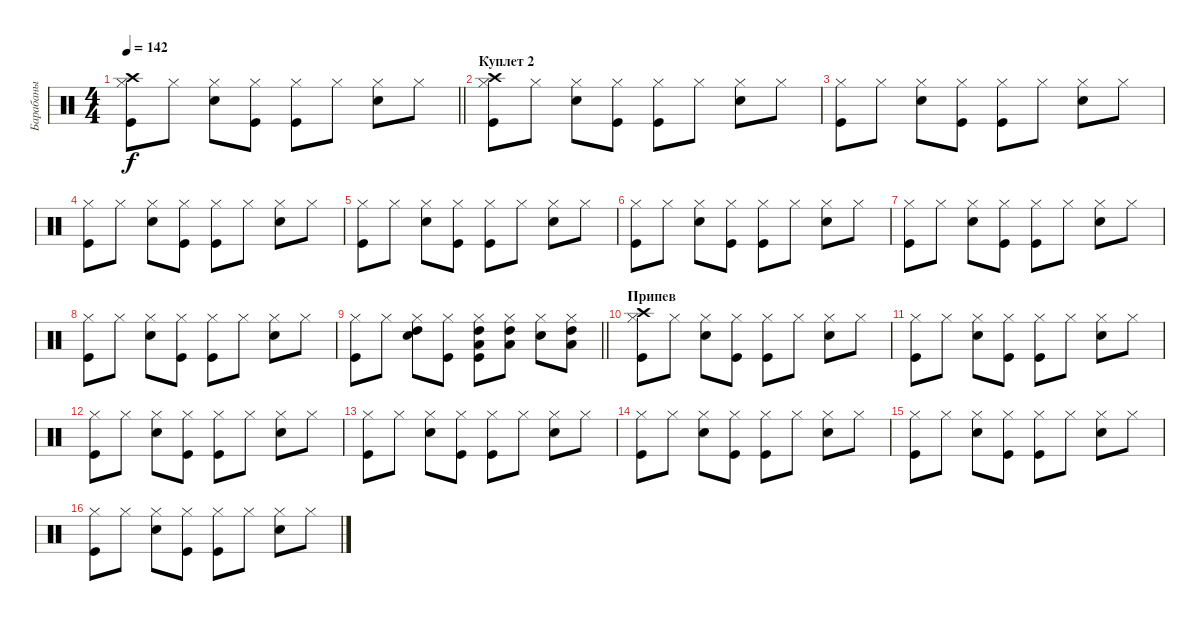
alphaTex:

\track ("Барабаны" "Барабаны") {instrument percussion}
\staff {score}
\articulation defaults
\ts (4 4)
\tempo 142
\clef neutral
\barLineRight lightlight
\ks c
("Kick (hit)" "Hi-Hat (closed)" "Crash high (hit)").8{dy f} "Hi-Hat (closed)".8 ("Snare (hit) 2" "Hi-Hat (closed)").8 ("Kick (hit)" "Hi-Hat (closed)").8 ("Kick (hit)" "Hi-Hat (closed)").8 "Hi-Hat (closed)".8 ("Snare (hit) 2" "Hi-Hat (closed)").8 "Hi-Hat (closed)".8 |
\section ("" "Куплет 2")
("Kick (hit)" "Hi-Hat (closed)" "Crash high (hit)").8 "Hi-Hat (closed)".8 ("Snare (hit) 2" "Hi-Hat (closed)").8 ("Kick (hit)" "Hi-Hat (closed)").8 ("Kick (hit)" "Hi-Hat (closed)").8 "Hi-Hat (closed)".8 ("Snare (hit) 2" "Hi-Hat (closed)").8 "Hi-Hat (closed)".8 |
("Kick (hit)" "Hi-Hat (closed)").8 "Hi-Hat (closed)".8 ("Snare (hit) 2" "Hi-Hat (closed)").8 ("Kick (hit)" "Hi-Hat (closed)").8 ("Kick (hit)" "Hi-Hat (closed)").8 "Hi-Hat (closed)".8 ("Snare (hit) 2" "Hi-Hat (closed)").8 "Hi-Hat (closed)".8 |
("Kick (hit)" "Hi-Hat (closed)").8 "Hi-Hat (closed)".8 ("Snare (hit) 2" "Hi-Hat (closed)").8 ("Kick (hit)" "Hi-Hat (closed)").8 ("Kick (hit)" "Hi-Hat (closed)").8 "Hi-Hat (closed)".8 ("Snare (hit) 2" "Hi-Hat (closed)").8 "Hi-Hat (closed)".8 |
("Kick (hit)" "Hi-Hat (closed)").8 "Hi-Hat (closed)".8 ("Snare (hit) 2" "Hi-Hat (closed)").8 ("Kick (hit)" "Hi-Hat (closed)").8 ("Kick (hit)" "Hi-Hat (closed)").8 "Hi-Hat (closed)".8 ("Snare (hit) 2" "Hi-Hat (closed)").8 "Hi-Hat (closed)".8 |
("Kick (hit)" "Hi-Hat (closed)").8 "Hi-Hat (closed)".8 ("Snare (hit) 2" "Hi-Hat (closed)").8 ("Kick (hit)" "Hi-Hat (closed)").8 ("Kick (hit)" "Hi-Hat (closed)").8 "Hi-Hat (closed)".8 ("Snare (hit) 2" "Hi-Hat (closed)").8 "Hi-Hat (closed)".8 |
("Kick (hit)" "Hi-Hat (closed)").8 "Hi-Hat (closed)".8 ("Snare (hit) 2" "Hi-Hat (closed)").8 ("Kick (hit)" "Hi-Hat (closed)").8 ("Kick (hit)" "Hi-Hat (closed)").8 "Hi-Hat (closed)".8 ("Snare (hit) 2" "Hi-Hat (closed)").8 "Hi-Hat (closed)".8 |
("Kick (hit)" "Hi-Hat (closed)").8 "Hi-Hat (closed)".8 ("Snare (hit) 2" "Hi-Hat (closed)").8 ("Kick (hit)" "Hi-Hat (closed)").8 ("Kick (hit)" "Hi-Hat (closed)").8 "Hi-Hat (closed)".8 ("Snare (hit) 2" "Hi-Hat (closed)").8 "Hi-Hat (closed)".8 |
\barLineRight lightlight
("Kick (hit)" "Hi-Hat (closed)").8 "Hi-Hat (closed)".8 ("Snare (hit) 2" "Hi-Hat (closed)" "High Tom (hit)").8 ("Kick (hit)" "Hi-Hat (closed)").8 ("Kick (hit)" "Hi-Hat (closed)" "Low Floor Tom (hit)" "High Tom (hit)").8 ("Hi-Hat (closed)" "Low Floor Tom (hit)" "High Tom (hit)").8 ("Snare (hit) 2" "Hi-Hat (closed)").8 ("Hi-Hat (closed)" "Low Floor Tom (hit)" "High Tom (hit)").8 |
\section ("" "Припев")
("Kick (hit)" "Hi-Hat (closed)" "Crash high (hit)").8 "Hi-Hat (closed)".8 ("Snare (hit) 2" "Hi-Hat (closed)").8 ("Kick (hit)" "Hi-Hat (closed)").8 ("Kick (hit)" "Hi-Hat (closed)").8 "Hi-Hat (closed)".8 ("Snare (hit) 2" "Hi-Hat (closed)").8 "Hi-Hat (closed)".8 |
("Kick (hit)" "Hi-Hat (closed)").8 "Hi-Hat (closed)".8 ("Snare (hit) 2" "Hi-Hat (closed)").8 ("Kick (hit)" "Hi-Hat (closed)").8 ("Kick (hit)" "Hi-Hat (closed)").8 "Hi-Hat (closed)".8 ("Snare (hit) 2" "Hi-Hat (closed)").8 "Hi-Hat (closed)".8 |
("Kick (hit)" "Hi-Hat (closed)").8 "Hi-Hat (closed)".8 ("Snare (hit) 2" "Hi-Hat (closed)").8 ("Kick (hit)" "Hi-Hat (closed)").8 ("Kick (hit)" "Hi-Hat (closed)").8 "Hi-Hat (closed)".8 ("Snare (hit) 2" "Hi-Hat (closed)").8 "Hi-Hat (closed)".8 |
("Kick (hit)" "Hi-Hat (closed)").8 "Hi-Hat (closed)".8 ("Snare (hit) 2" "Hi-Hat (closed)").8 ("Kick (hit)" "Hi-Hat (closed)").8 ("Kick (hit)" "Hi-Hat (closed)").8 "Hi-Hat (closed)".8 ("Snare (hit) 2" "Hi-Hat (closed)").8 "Hi-Hat (closed)".8 |
("Kick (hit)" "Hi-Hat (closed)").8 "Hi-Hat (closed)".8 ("Snare (hit) 2" "Hi-Hat (closed)").8 ("Kick (hit)" "Hi-Hat (closed)").8 ("Kick (hit)" "Hi-Hat (closed)").8 "Hi-Hat (closed)".8 ("Snare (hit) 2" "Hi-Hat (closed)").8 "Hi-Hat (closed)".8 |
("Kick (hit)" "Hi-Hat (closed)").8 "Hi-Hat (closed)".8 ("Snare (hit) 2" "Hi-Hat (closed)").8 ("Kick (hit)" "Hi-Hat (closed)").8 ("Kick (hit)" "Hi-Hat (closed)").8 "Hi-Hat (closed)".8 ("Snare (hit) 2" "Hi-Hat (closed)").8 "Hi-Hat (closed)".8 |
("Kick (hit)" "Hi-Hat (closed)").8 "Hi-Hat (closed)".8 ("Snare (hit) 2" "Hi-Hat (closed)").8 ("Kick (hit)" "Hi-Hat (closed)").8 ("Kick (hit)" "Hi-Hat (closed)").8 "Hi-Hat (closed)".8 ("Snare (hit) 2" "Hi-Hat (closed)").8 "Hi-Hat (closed)".8
